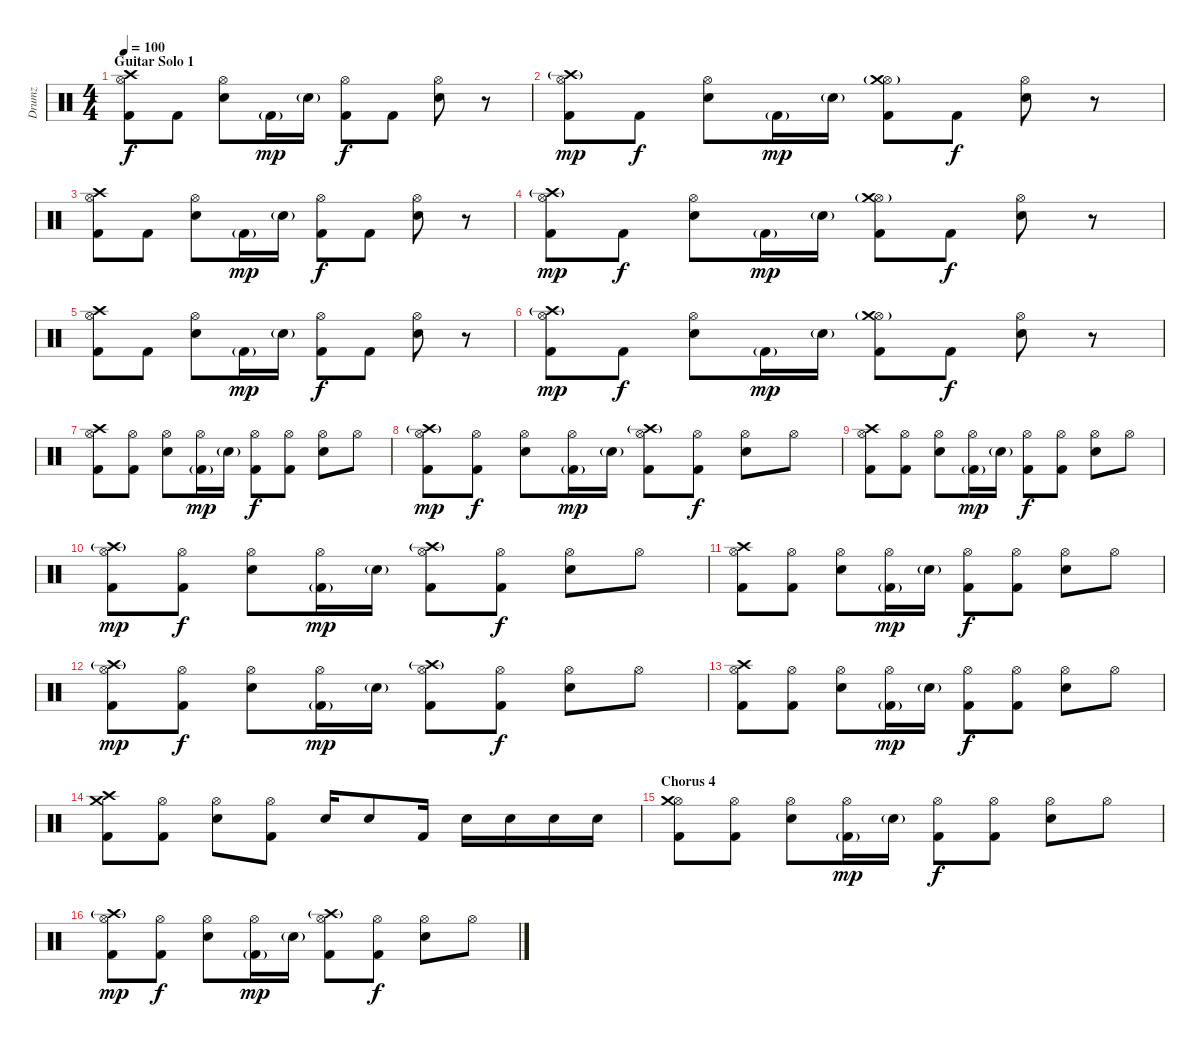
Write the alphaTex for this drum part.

\track ("Drumz" "Drumz") {instrument percussion}
\staff {score}
\articulation defaults
\ts (4 4)
\section ("" "Guitar Solo 1")
\tempo 100
\clef neutral
\ks c
("Hi-Hat (open)" "Crash high (hit)" "Kick (hit) 2").8{dy f} "Kick (hit) 2".8 ("Hi-Hat (open)" "Electric Snare (hit)").8 "Kick (hit) 2"{g}.16{dy mp} "Electric Snare (hit)"{g}.16 ("Hi-Hat (open)" "Kick (hit) 2").8{dy f} "Kick (hit) 2".8 ("Hi-Hat (open)" "Electric Snare (hit)").8 r.8 |
("Hi-Hat (open)" "Crash high (hit)"{g} "Kick (hit) 2").8{dy mp} "Kick (hit) 2".8{dy f} ("Hi-Hat (open)" "Electric Snare (hit)").8 "Kick (hit) 2"{g}.16{dy mp} "Electric Snare (hit)"{g}.16 ("Hi-Hat (open)" "Crash medium (hit)"{g} "Kick (hit) 2").8 "Kick (hit) 2".8{dy f} ("Hi-Hat (open)" "Electric Snare (hit)").8 r.8 |
("Hi-Hat (open)" "Crash high (hit)" "Kick (hit) 2").8 "Kick (hit) 2".8 ("Hi-Hat (open)" "Electric Snare (hit)").8 "Kick (hit) 2"{g}.16{dy mp} "Electric Snare (hit)"{g}.16 ("Hi-Hat (open)" "Kick (hit) 2").8{dy f} "Kick (hit) 2".8 ("Hi-Hat (open)" "Electric Snare (hit)").8 r.8 |
("Hi-Hat (open)" "Crash high (hit)"{g} "Kick (hit) 2").8{dy mp} "Kick (hit) 2".8{dy f} ("Hi-Hat (open)" "Electric Snare (hit)").8 "Kick (hit) 2"{g}.16{dy mp} "Electric Snare (hit)"{g}.16 ("Hi-Hat (open)" "Crash medium (hit)"{g} "Kick (hit) 2").8 "Kick (hit) 2".8{dy f} ("Hi-Hat (open)" "Electric Snare (hit)").8 r.8 |
("Hi-Hat (open)" "Crash high (hit)" "Kick (hit) 2").8 "Kick (hit) 2".8 ("Hi-Hat (open)" "Electric Snare (hit)").8 "Kick (hit) 2"{g}.16{dy mp} "Electric Snare (hit)"{g}.16 ("Hi-Hat (open)" "Kick (hit) 2").8{dy f} "Kick (hit) 2".8 ("Hi-Hat (open)" "Electric Snare (hit)").8 r.8 |
("Hi-Hat (open)" "Crash high (hit)"{g} "Kick (hit) 2").8{dy mp} "Kick (hit) 2".8{dy f} ("Hi-Hat (open)" "Electric Snare (hit)").8 "Kick (hit) 2"{g}.16{dy mp} "Electric Snare (hit)"{g}.16 ("Hi-Hat (open)" "Crash medium (hit)"{g} "Kick (hit) 2").8 "Kick (hit) 2".8{dy f} ("Hi-Hat (open)" "Electric Snare (hit)").8 r.8 |
("Hi-Hat (open)" "Crash high (hit)" "Kick (hit) 2").8 ("Hi-Hat (open)" "Kick (hit) 2").8 ("Hi-Hat (open)" "Electric Snare (hit)").8 ("Hi-Hat (open)" "Kick (hit) 2"{g}).16{dy mp} "Electric Snare (hit)"{g}.16 ("Hi-Hat (open)" "Kick (hit) 2").8{dy f} ("Hi-Hat (open)" "Kick (hit) 2").8 ("Hi-Hat (open)" "Electric Snare (hit)").8 "Hi-Hat (open)".8 |
("Hi-Hat (open)" "Crash high (hit)"{g} "Kick (hit) 2").8{dy mp} ("Hi-Hat (open)" "Kick (hit) 2").8{dy f} ("Hi-Hat (open)" "Electric Snare (hit)").8 ("Hi-Hat (open)" "Kick (hit) 2"{g}).16{dy mp} "Electric Snare (hit)"{g}.16 ("Hi-Hat (open)" "Crash high (hit)"{g} "Kick (hit) 2").8 ("Hi-Hat (open)" "Kick (hit) 2").8{dy f} ("Hi-Hat (open)" "Electric Snare (hit)").8 "Hi-Hat (open)".8 |
("Hi-Hat (open)" "Crash high (hit)" "Kick (hit) 2").8 ("Hi-Hat (open)" "Kick (hit) 2").8 ("Hi-Hat (open)" "Electric Snare (hit)").8 ("Hi-Hat (open)" "Kick (hit) 2"{g}).16{dy mp} "Electric Snare (hit)"{g}.16 ("Hi-Hat (open)" "Kick (hit) 2").8{dy f} ("Hi-Hat (open)" "Kick (hit) 2").8 ("Hi-Hat (open)" "Electric Snare (hit)").8 "Hi-Hat (open)".8 |
("Hi-Hat (open)" "Crash high (hit)"{g} "Kick (hit) 2").8{dy mp} ("Hi-Hat (open)" "Kick (hit) 2").8{dy f} ("Hi-Hat (open)" "Electric Snare (hit)").8 ("Hi-Hat (open)" "Kick (hit) 2"{g}).16{dy mp} "Electric Snare (hit)"{g}.16 ("Hi-Hat (open)" "Crash high (hit)"{g} "Kick (hit) 2").8 ("Hi-Hat (open)" "Kick (hit) 2").8{dy f} ("Hi-Hat (open)" "Electric Snare (hit)").8 "Hi-Hat (open)".8 |
("Hi-Hat (open)" "Crash high (hit)" "Kick (hit) 2").8 ("Hi-Hat (open)" "Kick (hit) 2").8 ("Hi-Hat (open)" "Electric Snare (hit)").8 ("Hi-Hat (open)" "Kick (hit) 2"{g}).16{dy mp} "Electric Snare (hit)"{g}.16 ("Hi-Hat (open)" "Kick (hit) 2").8{dy f} ("Hi-Hat (open)" "Kick (hit) 2").8 ("Hi-Hat (open)" "Electric Snare (hit)").8 "Hi-Hat (open)".8 |
("Hi-Hat (open)" "Crash high (hit)"{g} "Kick (hit) 2").8{dy mp} ("Hi-Hat (open)" "Kick (hit) 2").8{dy f} ("Hi-Hat (open)" "Electric Snare (hit)").8 ("Hi-Hat (open)" "Kick (hit) 2"{g}).16{dy mp} "Electric Snare (hit)"{g}.16 ("Hi-Hat (open)" "Crash high (hit)"{g} "Kick (hit) 2").8 ("Hi-Hat (open)" "Kick (hit) 2").8{dy f} ("Hi-Hat (open)" "Electric Snare (hit)").8 "Hi-Hat (open)".8 |
("Hi-Hat (open)" "Crash high (hit)" "Kick (hit) 2").8 ("Hi-Hat (open)" "Kick (hit) 2").8 ("Hi-Hat (open)" "Electric Snare (hit)").8 ("Hi-Hat (open)" "Kick (hit) 2"{g}).16{dy mp} "Electric Snare (hit)"{g}.16 ("Hi-Hat (open)" "Kick (hit) 2").8{dy f} ("Hi-Hat (open)" "Kick (hit) 2").8 ("Hi-Hat (open)" "Electric Snare (hit)").8 "Hi-Hat (open)".8 |
("Crash high (hit)" "Crash medium (hit)" "Kick (hit) 2").8 ("Hi-Hat (open)" "Kick (hit) 2").8 ("Hi-Hat (open)" "Electric Snare (hit)").8 ("Hi-Hat (open)" "Kick (hit) 2").8 "Electric Snare (hit)".16 "Electric Snare (hit)".8 "Kick (hit) 2".16 "Electric Snare (hit)".16 "Electric Snare (hit)".16 "Electric Snare (hit)".16 "Electric Snare (hit)".16 |
\section ("" "Chorus 4")
("Hi-Hat (open)" "Crash medium (hit)" "Kick (hit) 2").8 ("Hi-Hat (open)" "Kick (hit) 2").8 ("Hi-Hat (open)" "Electric Snare (hit)").8 ("Hi-Hat (open)" "Kick (hit) 2"{g}).16{dy mp} "Electric Snare (hit)"{g}.16 ("Hi-Hat (open)" "Kick (hit) 2").8{dy f} ("Hi-Hat (open)" "Kick (hit) 2").8 ("Hi-Hat (open)" "Electric Snare (hit)").8 "Hi-Hat (open)".8 |
("Hi-Hat (open)" "Crash high (hit)"{g} "Kick (hit) 2").8{dy mp} ("Hi-Hat (open)" "Kick (hit) 2").8{dy f} ("Hi-Hat (open)" "Electric Snare (hit)").8 ("Hi-Hat (open)" "Kick (hit) 2"{g}).16{dy mp} "Electric Snare (hit)"{g}.16 ("Hi-Hat (open)" "Crash high (hit)"{g} "Kick (hit) 2").8 ("Hi-Hat (open)" "Kick (hit) 2").8{dy f} ("Hi-Hat (open)" "Electric Snare (hit)").8 "Hi-Hat (open)".8
